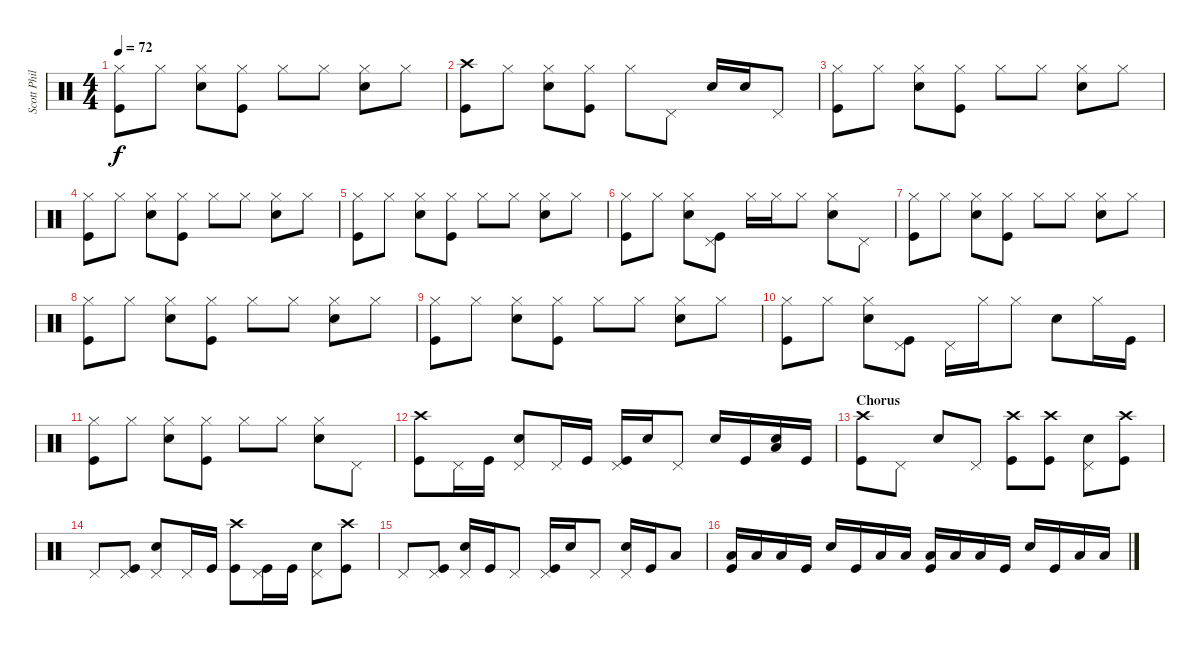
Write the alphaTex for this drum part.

\track ("Scott Phillips" "Scott Phil") {instrument percussion}
\staff {score}
\articulation defaults
\ts (4 4)
\tempo 72
\clef neutral
\ks c
("Hi-Hat (closed)" "Kick (hit)").8{dy f} "Hi-Hat (closed)".8 ("Hi-Hat (closed)" "Snare (hit) 2").8 ("Hi-Hat (closed)" "Kick (hit)").8 "Hi-Hat (closed)".8 "Hi-Hat (closed)".8 ("Hi-Hat (closed)" "Snare (hit) 2").8 "Hi-Hat (closed)".8 |
("Crash high (hit)" "Kick (hit)").8 "Hi-Hat (closed)".8 ("Hi-Hat (closed)" "Snare (hit) 2").8 ("Hi-Hat (closed)" "Kick (hit)").8 "Hi-Hat (closed)".8 "Pedal Hi-Hat (hit)".8 "Snare (hit) 2".16 "Snare (hit) 2".16 "Pedal Hi-Hat (hit)".8 |
("Hi-Hat (closed)" "Kick (hit)").8 "Hi-Hat (closed)".8 ("Hi-Hat (closed)" "Snare (hit) 2").8 ("Hi-Hat (closed)" "Kick (hit)").8 "Hi-Hat (closed)".8 "Hi-Hat (closed)".8 ("Hi-Hat (closed)" "Snare (hit) 2").8 "Hi-Hat (closed)".8 |
("Hi-Hat (closed)" "Kick (hit)").8 "Hi-Hat (closed)".8 ("Hi-Hat (closed)" "Snare (hit) 2").8 ("Hi-Hat (closed)" "Kick (hit)").8 "Hi-Hat (closed)".8 "Hi-Hat (closed)".8 ("Hi-Hat (closed)" "Snare (hit) 2").8 "Hi-Hat (closed)".8 |
("Hi-Hat (closed)" "Kick (hit)").8 "Hi-Hat (closed)".8 ("Hi-Hat (closed)" "Snare (hit) 2").8 ("Hi-Hat (closed)" "Kick (hit)").8 "Hi-Hat (closed)".8 "Hi-Hat (closed)".8 ("Hi-Hat (closed)" "Snare (hit) 2").8 "Hi-Hat (closed)".8 |
("Hi-Hat (closed)" "Kick (hit)").8 "Hi-Hat (closed)".8 ("Hi-Hat (closed)" "Snare (hit) 2").8 ("Pedal Hi-Hat (hit)" "Kick (hit)").8 "Hi-Hat (closed)".16 "Hi-Hat (closed)".16 "Hi-Hat (closed)".8 ("Hi-Hat (closed)" "Snare (hit) 2").8 "Pedal Hi-Hat (hit)".8 |
("Hi-Hat (closed)" "Kick (hit)").8 "Hi-Hat (closed)".8 ("Hi-Hat (closed)" "Snare (hit) 2").8 ("Hi-Hat (closed)" "Kick (hit)").8 "Hi-Hat (closed)".8 "Hi-Hat (closed)".8 ("Hi-Hat (closed)" "Snare (hit) 2").8 "Hi-Hat (closed)".8 |
("Hi-Hat (closed)" "Kick (hit)").8 "Hi-Hat (closed)".8 ("Hi-Hat (closed)" "Snare (hit) 2").8 ("Hi-Hat (closed)" "Kick (hit)").8 "Hi-Hat (closed)".8 "Hi-Hat (closed)".8 ("Hi-Hat (closed)" "Snare (hit) 2").8 "Hi-Hat (closed)".8 |
("Hi-Hat (closed)" "Kick (hit)").8 "Hi-Hat (closed)".8 ("Hi-Hat (closed)" "Snare (hit) 2").8 ("Hi-Hat (closed)" "Kick (hit)").8 "Hi-Hat (closed)".8 "Hi-Hat (closed)".8 ("Hi-Hat (closed)" "Snare (hit) 2").8 "Hi-Hat (closed)".8 |
("Hi-Hat (closed)" "Kick (hit)").8 "Hi-Hat (closed)".8 ("Hi-Hat (closed)" "Snare (hit) 2").8 ("Pedal Hi-Hat (hit)" "Kick (hit)").8 "Pedal Hi-Hat (hit)".16 "Hi-Hat (closed)".16 "Hi-Hat (closed)".8 "Snare (hit) 2".8 "Hi-Hat (closed)".16 "Kick (hit)".16 |
("Hi-Hat (closed)" "Kick (hit)").8 "Hi-Hat (closed)".8 ("Hi-Hat (closed)" "Snare (hit) 2").8 ("Hi-Hat (closed)" "Kick (hit)").8 "Hi-Hat (closed)".8 "Hi-Hat (closed)".8 ("Hi-Hat (closed)" "Snare (hit) 2").8 "Pedal Hi-Hat (hit)".8 |
("Crash high (hit)" "Kick (hit)").8 "Pedal Hi-Hat (hit)".16 "Kick (hit)".16 ("Pedal Hi-Hat (hit)" "Snare (hit) 2").8 "Pedal Hi-Hat (hit)".16 "Kick (hit)".16 ("Pedal Hi-Hat (hit)" "Kick (hit)").16 "Snare (hit) 2".16 "Pedal Hi-Hat (hit)".8 "Snare (hit) 2".16 "Kick (hit)".16 ("Low Tom (hit)" "Snare (hit) 2").16 "Kick (hit)".16 |
\section ("" "Chorus")
("Crash high (hit)" "Kick (hit)").8 "Pedal Hi-Hat (hit)".8 "Snare (hit) 2".8 "Pedal Hi-Hat (hit)".8 ("Crash high (hit)" "Kick (hit)").8 ("Crash high (hit)" "Kick (hit)").8 ("Pedal Hi-Hat (hit)" "Snare (hit) 2").8 ("Crash high (hit)" "Kick (hit)").8 |
"Pedal Hi-Hat (hit)".8 ("Pedal Hi-Hat (hit)" "Kick (hit)").8 ("Pedal Hi-Hat (hit)" "Snare (hit) 2").8 "Pedal Hi-Hat (hit)".16 "Kick (hit)".16 ("Crash high (hit)" "Kick (hit)").8 ("Pedal Hi-Hat (hit)" "Kick (hit)").16 "Kick (hit)".16 ("Pedal Hi-Hat (hit)" "Snare (hit) 2").8 ("Crash high (hit)" "Kick (hit)").8 |
"Pedal Hi-Hat (hit)".8 ("Pedal Hi-Hat (hit)" "Kick (hit)").8 ("Pedal Hi-Hat (hit)" "Snare (hit) 2").16 "Kick (hit)".16 "Pedal Hi-Hat (hit)".8 ("Pedal Hi-Hat (hit)" "Kick (hit)").16 "Snare (hit) 2".16 "Pedal Hi-Hat (hit)".8 ("Pedal Hi-Hat (hit)" "Snare (hit) 2").16 "Kick (hit)".16 "Low Tom (hit)".8 |
("Low Tom (hit)" "Kick (hit)").16 "Low Tom (hit)".16 "Low Tom (hit)".16 "Kick (hit)".16 "Snare (hit) 2".16 "Kick (hit)".16 "Low Tom (hit)".16 "Low Tom (hit)".16 ("Low Tom (hit)" "Kick (hit)").16 "Low Tom (hit)".16 "Low Tom (hit)".16 "Kick (hit)".16 "Snare (hit) 2".16 "Kick (hit)".16 "Low Tom (hit)".16 "Low Tom (hit)".16
